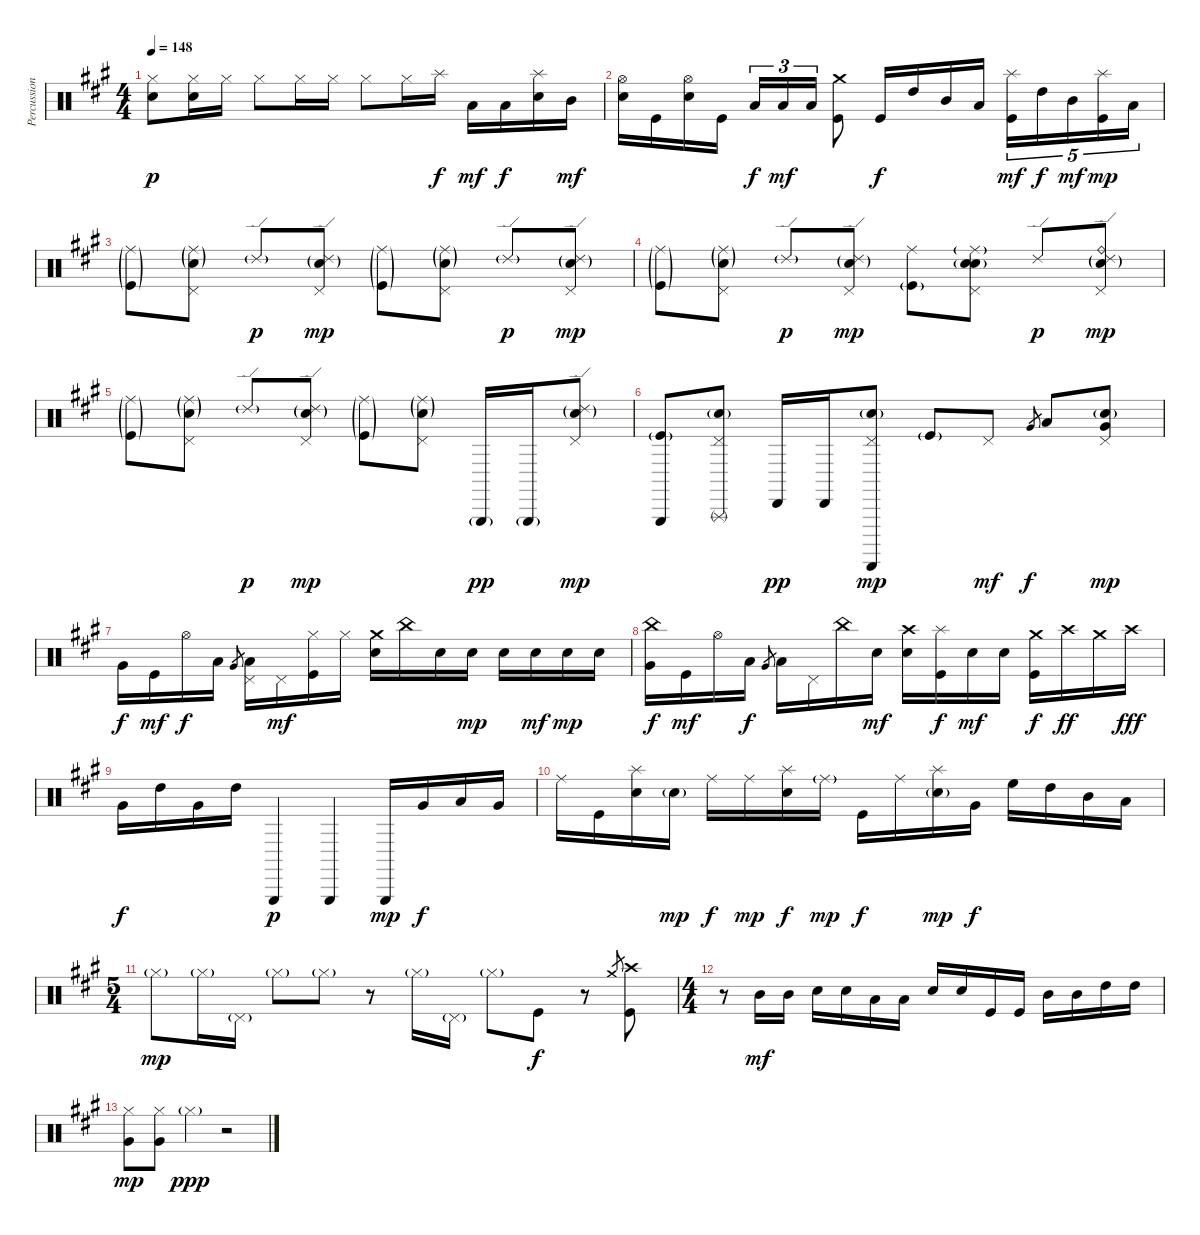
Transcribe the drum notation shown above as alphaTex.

\track ("Percussion" "Percussion") {instrument percussion}
\staff {score}
\articulation defaults
\ts (4 4)
\tempo 148
\clef neutral
\ks a
("Hi-Hat (closed)" "Electric Snare (hit)").8{dy p} ("Hi-Hat (closed)" "Electric Snare (hit)").16 "Hi-Hat (closed)".16 "Hi-Hat (closed)".8 "Hi-Hat (closed)".16 "Hi-Hat (closed)".16 "Hi-Hat (closed)".8 "Hi-Hat (closed)".16 "Splash (hit)".16{dy f} "Low Tom (hit)".16{dy mf} "Low Tom (hit)".16{dy f} ("Splash (hit)" "Electric Snare (hit)").16 "Mid Tom (hit)".16{dy mf} |
("Hi-Hat (open)" "Electric Snare (hit)").16 "Kick (hit)".16 ("Hi-Hat (open)" "Electric Snare (hit)").16 "Kick (hit)".16 "Low Tom (hit)".16{tu (3 2) dy f} "Low Tom (hit)".16{tu (3 2) dy mf} "Low Tom (hit)".16{tu (3 2)} ("Crash medium (hit)" "Kick (hit)").8 "Kick (hit)".16{dy f} "High Tom (hit)".16 "Mid Tom (hit)".16 "Low Tom (hit)".16 ("Splash (hit)" "Kick (hit)").16{tu (5 4) dy mf} "High Tom (hit)".16{tu (5 4) dy f} "Mid Tom (hit)".16{tu (5 4) dy mf} ("Splash (hit)" "Kick (hit)").16{tu (5 4) dy mp} "Low Tom (hit)".16{tu (5 4)} |
("Ride (middle)"{g} "Kick (hit)"{g}).8 ("Pedal Hi-Hat (hit)" "Ride (middle)"{g} "Hand Clap (hit)"{g}).8 "Ride (edge) 2"{g}.8{dy p} ("Pedal Hi-Hat (hit)" "Ride (edge) 2"{g} "Hand Clap (hit)"{g}).8{dy mp} ("Ride (middle)"{g} "Kick (hit)"{g}).8 ("Pedal Hi-Hat (hit)" "Ride (middle)"{g} "Hand Clap (hit)"{g}).8 "Ride (edge) 2"{g}.8{dy p} ("Pedal Hi-Hat (hit)" "Ride (edge) 2"{g} "Hand Clap (hit)"{g}).8{dy mp} |
("Ride (middle)"{g} "Kick (hit)"{g}).8 ("Pedal Hi-Hat (hit)" "Ride (middle)"{g} "Hand Clap (hit)"{g}).8 "Ride (edge) 2"{g}.8{dy p} ("Pedal Hi-Hat (hit)" "Ride (edge) 2"{g} "Hand Clap (hit)"{g}).8{dy mp} ("Ride (middle)" "Kick (hit)"{g}).8 ("Pedal Hi-Hat (hit)" "Ride (middle)"{g} "Metronome (bell)" "Hand Clap (hit)"{g}).8 "Ride (edge) 2".8{dy p} ("Pedal Hi-Hat (hit)" "Ride (edge) 2"{g} "Ride (bell)" "Hand Clap (hit)"{g}).8{dy mp} |
("Ride (middle)"{g} "Kick (hit)"{g}).8 ("Pedal Hi-Hat (hit)" "Ride (middle)"{g} "Hand Clap (hit)"{g}).8 "Ride (edge) 2"{g}.8{dy p} ("Pedal Hi-Hat (hit)" "Ride (edge) 2"{g} "Hand Clap (hit)"{g}).8{dy mp} ("Ride (middle)"{g} "Kick (hit)"{g}).8 ("Pedal Hi-Hat (hit)" "Ride (middle)"{g} "Hand Clap (hit)"{g}).8 "Triangle (hit)"{g}.16{dy pp} "Triangle (hit)"{g}.16 ("Pedal Hi-Hat (hit)" "Ride (edge) 2"{g} "Hand Clap (hit)"{g}).8{dy mp} |
("Triangle (hit)" "Kick (hit)"{g}).8 ("Pedal Hi-Hat (hit)" "Triangle (rnute)" "Hand Clap (hit)"{g}).8 "Cabasa (hit)".16{dy pp balance 16} "Cabasa (hit)".16 ("Pedal Hi-Hat (hit)" "Guiro (scrap-return)" "Hand Clap (hit)"{g}).8{dy mp balance 0} "Kick (hit)"{g}.8{balance 8} "Pedal Hi-Hat (hit)".8{dy mf} "Very Low Tom (hit)".8{gr dy f} "Low Floor Tom (hit)".8 ("Pedal Hi-Hat (hit)" "Very Low Tom (hit)" "Hand Clap (hit)"{g}).8{dy mp} |
"Very Low Tom (hit)".16{dy f} "Kick (hit)".16{dy mf} "Hi-Hat (open)".16{dy f} "Low Tom (hit)".16 "Very Low Tom (hit)".8{gr} ("Pedal Hi-Hat (hit)" "Low Floor Tom (hit)").16 "Pedal Hi-Hat (hit)".16{dy mf} ("Hi-Hat (closed)" "Kick (hit)").16 "Hi-Hat (closed)".16 ("Crash medium (hit)" "Electric Snare (hit)").16 "China (hit)".16 "Electric Snare (hit)".16 "Electric Snare (hit)".16{dy mp} "Electric Snare (hit)".16 "Electric Snare (hit)".16{dy mf} "Electric Snare (hit)".16{dy mp} "Electric Snare (hit)".16 |
("China (hit)" "Very Low Tom (hit)").16{dy f} "Kick (hit)".16{dy mf} "Hi-Hat (open)".16 "Low Tom (hit)".16{dy f} "Very Low Tom (hit)".8{gr} "Low Floor Tom (hit)".16 "Pedal Hi-Hat (hit)".16 "China (hit)".16 "Electric Snare (hit)".16{dy mf} ("Crash high (hit)" "Electric Snare (hit)").16 ("Splash (hit)" "Kick (hit)").16{dy f} "Electric Snare (hit)".16{dy mf} "Electric Snare (hit)".16 ("Crash medium (hit)" "Kick (hit)").16{dy f} "Crash high (hit)".16{dy ff} "Crash medium (hit)".16 "Crash high (hit)".16{dy fff} |
"Very Low Tom (hit)".16{dy f} "High Tom (hit)".16 "Very Low Tom (hit)".16 "High Tom (hit)".16 "Triangle (hit)".4{dy p} "Triangle (hit)".4 "Triangle (hit)".16{dy mp} "Very Low Tom (hit)".16{dy f} "Low Floor Tom (hit)".16 "Very Low Tom (hit)".16 |
"Ride (middle)".16 "Kick (hit)".16 ("Splash (hit)" "Electric Snare (hit)").16 "Electric Snare (hit)"{g}.16{dy mp} "Ride (middle)".16{dy f} "Ride (middle)".16{dy mp} ("Splash (hit)" "Electric Snare (hit)").16{dy f} "Ride (middle)"{g}.16{dy mp} "Kick (hit)".16{dy f} "Ride (middle)".16 ("Splash (hit)" "Electric Snare (hit)"{g}).16{dy mp} "Very Low Tom (hit)".16{dy f} "High Floor Tom (hit)".16 "High Tom (hit)".16 "Mid Tom (hit)".16 "Low Tom (hit)".16 |
\ts (5 4)
"Hi-Hat (closed)"{g}.8{dy mp} "Hi-Hat (closed)"{g}.16 "Pedal Hi-Hat (hit)"{g}.16 "Hi-Hat (closed)"{g}.8 "Hi-Hat (closed)"{g}.8 r.8 "Hi-Hat (closed)"{g}.16 "Pedal Hi-Hat (hit)"{g}.16 "Hi-Hat (closed)"{g}.8 "Kick (hit)".8{dy f} r.8 "Crash medium (hit)".8{gr} ("Crash high (hit)" "Kick (hit)").8 |
\ts (4 4)
r.8 "Mid Tom (hit)".16{dy mf} "Mid Tom (hit)".16 "Electric Snare (hit)".16 "Electric Snare (hit)".16 "Low Tom (hit)".16 "Low Tom (hit)".16 "Electric Snare (hit)".16 "Electric Snare (hit)".16 "Kick (hit)".16 "Kick (hit)".16 "Mid Tom (hit)".16 "Mid Tom (hit)".16 "High Tom (hit)".16 "High Tom (hit)".16 |
("Hi-Hat (closed)" "Very Low Tom (hit)").8{dy mp} ("Hi-Hat (closed)" "Very Low Tom (hit)").8 "Hi-Hat (closed)"{g}.4{dy ppp} r.2
